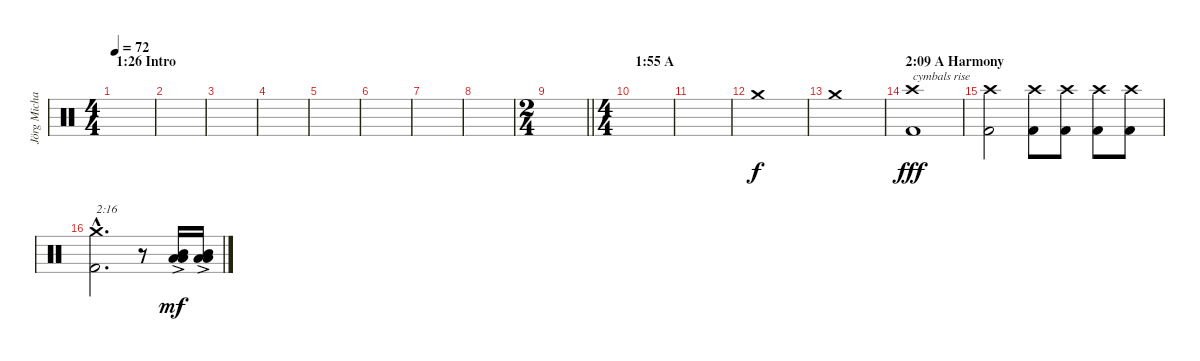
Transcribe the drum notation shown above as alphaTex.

\track ("Jörg Michael" "Jörg Micha") {instrument percussion}
\staff {score}
\articulation defaults
\ts (4 4)
\section ("" "1:26 Intro")
\tempo 72
\clef neutral
\ks c
|
|
|
|
|
|
|
|
\ts (2 4)
\barLineRight lightlight
|
\ts (4 4)
\section ("" "1:55 A")
|
|
"Crash medium (hit)".1 |
"Crash medium (hit)".1 |
\section ("" "2:09 A Harmony")
("Kick (hit) 2" "Crash high (hit)").1{txt "cymbals rise" dy fff} |
("Kick (hit) 2" "Crash high (hit)").2 ("Kick (hit) 2" "Crash high (hit)").8 ("Kick (hit) 2" "Crash high (hit)").8 ("Kick (hit) 2" "Crash high (hit)").8 ("Kick (hit) 2" "Crash high (hit)").8 |
("Kick (hit) 2"{hac} "Crash medium (hit)"{hac}).2{d txt "2:16"} r.8 ("Low Tom (hit)"{ac} "Low Tom (hit)"{ac} "Mid Tom (hit)").16{dy mf} ("Low Tom (hit)"{ac} "Low Tom (hit)"{ac} "Mid Tom (hit)").16
